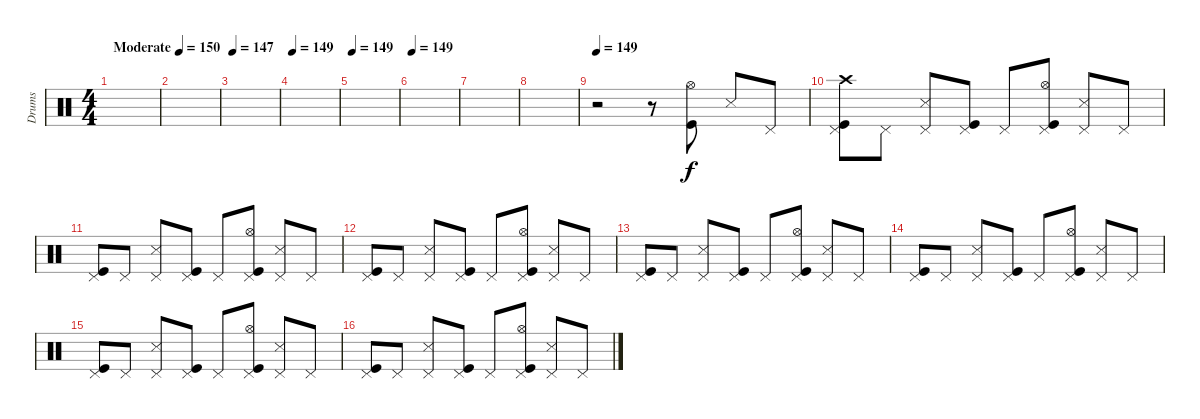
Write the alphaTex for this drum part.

\track ("Drums" "Drums") {instrument percussion}
\staff {score}
\articulation defaults
\ts (4 4)
\tempo (150 "Moderate")
\clef neutral
\ks c
|
|
\tempo 147
|
\tempo 149
|
\tempo 149
|
\tempo 149
|
|
|
\tempo 149
r.2 r.8 ("Kick (hit)" "Hi-Hat (open)").8 "Metronome (hit)".8 "Pedal Hi-Hat (hit)".8 |
("Kick (hit)" "Pedal Hi-Hat (hit)" "Crash high (hit)").8 "Pedal Hi-Hat (hit)".8 ("Pedal Hi-Hat (hit)" "Metronome (hit)").8 ("Kick (hit)" "Pedal Hi-Hat (hit)").8 "Pedal Hi-Hat (hit)".8 ("Kick (hit)" "Pedal Hi-Hat (hit)" "Hi-Hat (open)").8 ("Pedal Hi-Hat (hit)" "Metronome (hit)").8 "Pedal Hi-Hat (hit)".8 |
("Kick (hit)" "Pedal Hi-Hat (hit)").8 "Pedal Hi-Hat (hit)".8 ("Pedal Hi-Hat (hit)" "Metronome (hit)").8 ("Kick (hit)" "Pedal Hi-Hat (hit)").8 "Pedal Hi-Hat (hit)".8 ("Kick (hit)" "Pedal Hi-Hat (hit)" "Hi-Hat (open)").8 ("Pedal Hi-Hat (hit)" "Metronome (hit)").8 "Pedal Hi-Hat (hit)".8 |
("Kick (hit)" "Pedal Hi-Hat (hit)").8 "Pedal Hi-Hat (hit)".8 ("Pedal Hi-Hat (hit)" "Metronome (hit)").8 ("Kick (hit)" "Pedal Hi-Hat (hit)").8 "Pedal Hi-Hat (hit)".8 ("Kick (hit)" "Pedal Hi-Hat (hit)" "Hi-Hat (open)").8 ("Pedal Hi-Hat (hit)" "Metronome (hit)").8 "Pedal Hi-Hat (hit)".8 |
("Kick (hit)" "Pedal Hi-Hat (hit)").8 "Pedal Hi-Hat (hit)".8 ("Pedal Hi-Hat (hit)" "Metronome (hit)").8 ("Kick (hit)" "Pedal Hi-Hat (hit)").8 "Pedal Hi-Hat (hit)".8 ("Kick (hit)" "Pedal Hi-Hat (hit)" "Hi-Hat (open)").8 ("Pedal Hi-Hat (hit)" "Metronome (hit)").8 "Pedal Hi-Hat (hit)".8 |
("Kick (hit)" "Pedal Hi-Hat (hit)").8 "Pedal Hi-Hat (hit)".8 ("Pedal Hi-Hat (hit)" "Metronome (hit)").8 ("Kick (hit)" "Pedal Hi-Hat (hit)").8 "Pedal Hi-Hat (hit)".8 ("Kick (hit)" "Pedal Hi-Hat (hit)" "Hi-Hat (open)").8 ("Pedal Hi-Hat (hit)" "Metronome (hit)").8 "Pedal Hi-Hat (hit)".8 |
("Kick (hit)" "Pedal Hi-Hat (hit)").8 "Pedal Hi-Hat (hit)".8 ("Pedal Hi-Hat (hit)" "Metronome (hit)").8 ("Kick (hit)" "Pedal Hi-Hat (hit)").8 "Pedal Hi-Hat (hit)".8 ("Kick (hit)" "Pedal Hi-Hat (hit)" "Hi-Hat (open)").8 ("Pedal Hi-Hat (hit)" "Metronome (hit)").8 "Pedal Hi-Hat (hit)".8 |
("Kick (hit)" "Pedal Hi-Hat (hit)").8 "Pedal Hi-Hat (hit)".8 ("Pedal Hi-Hat (hit)" "Metronome (hit)").8 ("Kick (hit)" "Pedal Hi-Hat (hit)").8 "Pedal Hi-Hat (hit)".8 ("Kick (hit)" "Pedal Hi-Hat (hit)" "Hi-Hat (open)").8 ("Pedal Hi-Hat (hit)" "Metronome (hit)").8 "Pedal Hi-Hat (hit)".8
